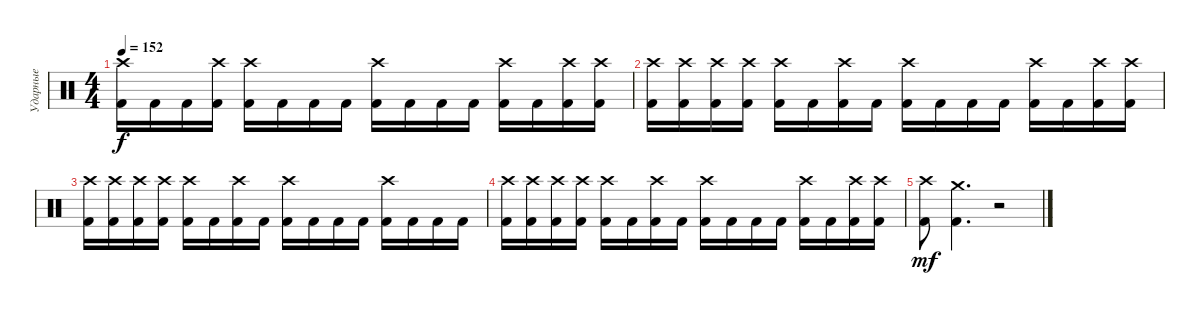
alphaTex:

\track ("Ударные" "Ударные") {instrument percussion}
\staff {score}
\articulation defaults
\ts (4 4)
\tempo 152
\clef neutral
\ks c
("Kick (hit) 2" "Crash high (hit)").16{dy f} "Kick (hit) 2".16 "Kick (hit) 2".16 ("Kick (hit) 2" "Crash high (hit)").16 ("Kick (hit) 2" "Crash high (hit)").16 "Kick (hit) 2".16 "Kick (hit) 2".16 "Kick (hit) 2".16 ("Kick (hit) 2" "Crash high (hit)").16 "Kick (hit) 2".16 "Kick (hit) 2".16 "Kick (hit) 2".16 ("Kick (hit) 2" "Crash high (hit)").16 "Kick (hit) 2".16 ("Kick (hit) 2" "Crash high (hit)").16 ("Kick (hit) 2" "Crash high (hit)").16 |
("Kick (hit) 2" "Crash high (hit)").16 ("Kick (hit) 2" "Crash high (hit)").16 ("Kick (hit) 2" "Crash high (hit)").16 ("Kick (hit) 2" "Crash high (hit)").16 ("Kick (hit) 2" "Crash high (hit)").16 "Kick (hit) 2".16 ("Kick (hit) 2" "Crash high (hit)").16 "Kick (hit) 2".16 ("Kick (hit) 2" "Crash high (hit)").16 "Kick (hit) 2".16 "Kick (hit) 2".16 "Kick (hit) 2".16 ("Kick (hit) 2" "Crash high (hit)").16 "Kick (hit) 2".16 ("Kick (hit) 2" "Crash high (hit)").16 ("Kick (hit) 2" "Crash high (hit)").16 |
("Kick (hit) 2" "Crash high (hit)").16 ("Kick (hit) 2" "Crash high (hit)").16 ("Kick (hit) 2" "Crash high (hit)").16 ("Kick (hit) 2" "Crash high (hit)").16 ("Kick (hit) 2" "Crash high (hit)").16 "Kick (hit) 2".16 ("Kick (hit) 2" "Crash high (hit)").16 "Kick (hit) 2".16 ("Kick (hit) 2" "Crash high (hit)").16 "Kick (hit) 2".16 "Kick (hit) 2".16 "Kick (hit) 2".16 ("Kick (hit) 2" "Crash high (hit)").16 "Kick (hit) 2".16 "Kick (hit) 2".16 "Kick (hit) 2".16 |
("Kick (hit) 2" "Crash high (hit)").16 ("Kick (hit) 2" "Crash high (hit)").16 ("Kick (hit) 2" "Crash high (hit)").16 ("Kick (hit) 2" "Crash high (hit)").16 ("Kick (hit) 2" "Crash high (hit)").16 "Kick (hit) 2".16 ("Kick (hit) 2" "Crash high (hit)").16 "Kick (hit) 2".16 ("Kick (hit) 2" "Crash high (hit)").16 "Kick (hit) 2".16 "Kick (hit) 2".16 "Kick (hit) 2".16 ("Kick (hit) 2" "Crash high (hit)").16 "Kick (hit) 2".16 ("Kick (hit) 2" "Crash high (hit)").16 ("Kick (hit) 2" "Crash high (hit)").16 |
("Kick (hit) 2" "Crash high (hit)").8{dy mf} ("Kick (hit) 2" "Crash medium (hit)").4{d} r.2
